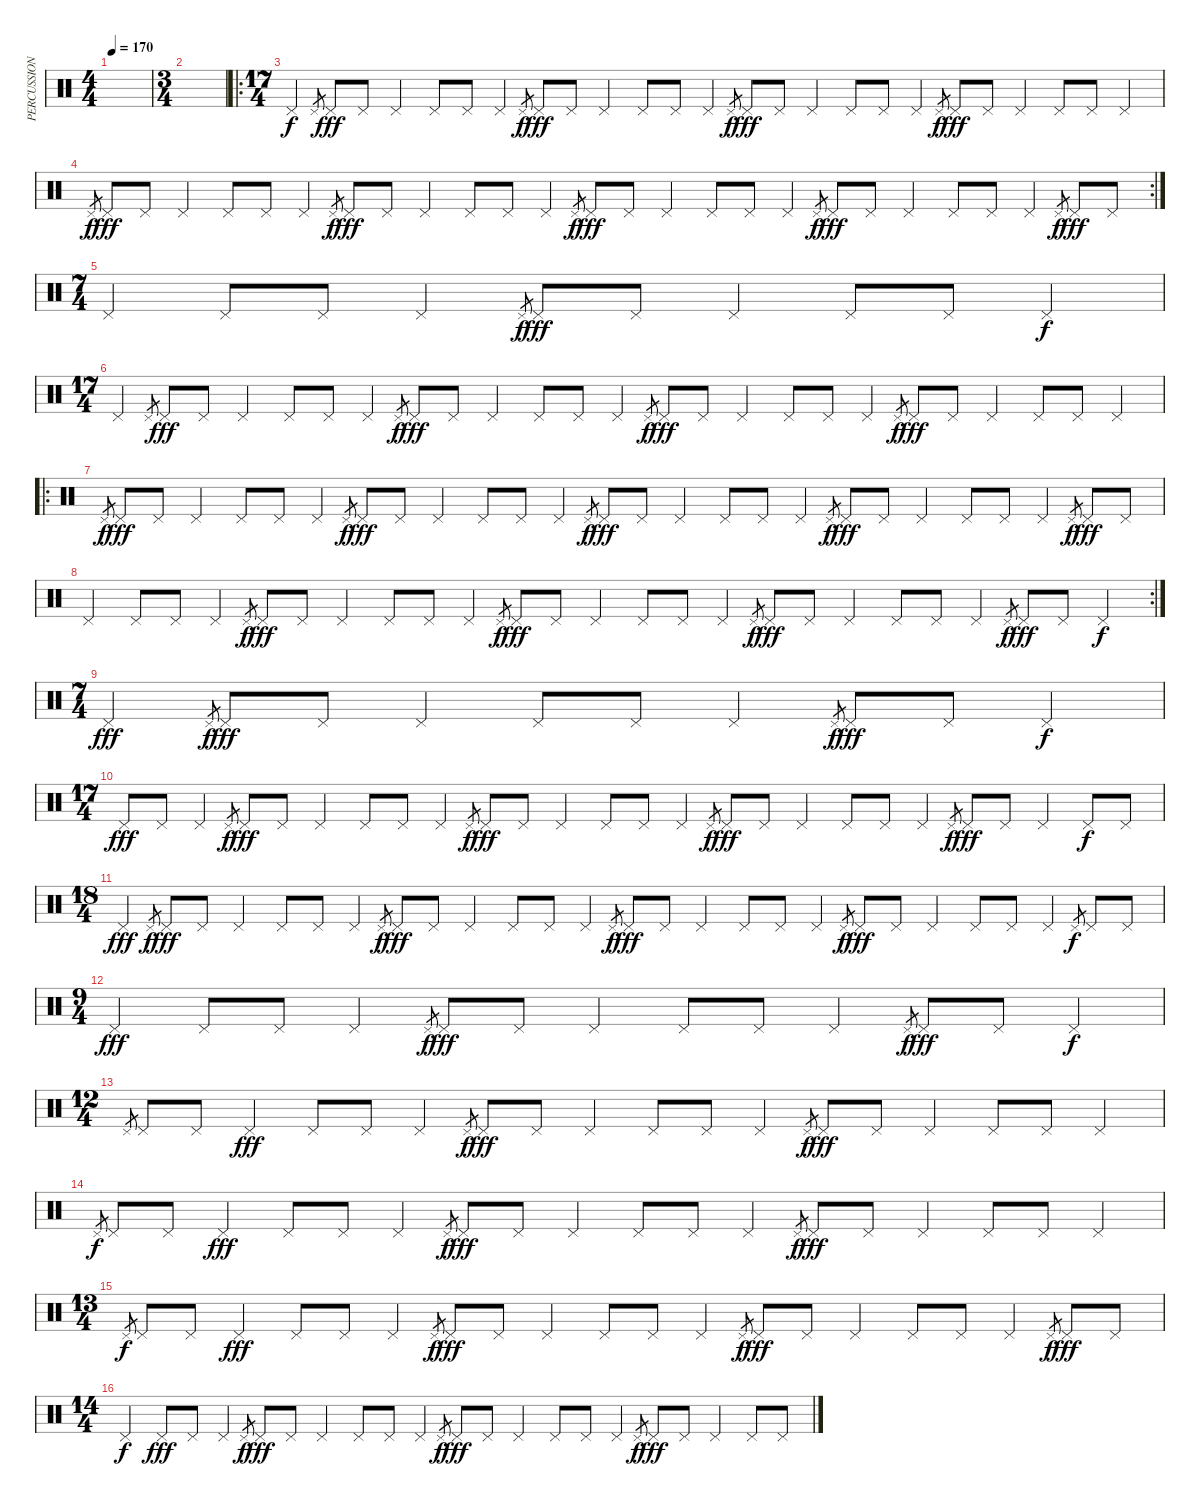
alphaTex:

\track ("PERCUSSION" "PERCUSSION") {instrument percussion}
\staff {score}
\articulation defaults
\ts (4 4)
\tempo 170
\clef neutral
\ks c
|
\ts (3 4)
|
\ro
\ts (17 4)
"Pedal Hi-Hat (hit)".4{volume 16} "Pedal Hi-Hat (hit)".8{gr dy f} "Pedal Hi-Hat (hit)".8{dy fff} "Pedal Hi-Hat (hit)".8 "Pedal Hi-Hat (hit)".4 "Pedal Hi-Hat (hit)".8 "Pedal Hi-Hat (hit)".8 "Pedal Hi-Hat (hit)".4 "Pedal Hi-Hat (hit)".8{gr dy f} "Pedal Hi-Hat (hit)".8{dy fff} "Pedal Hi-Hat (hit)".8 "Pedal Hi-Hat (hit)".4 "Pedal Hi-Hat (hit)".8 "Pedal Hi-Hat (hit)".8 "Pedal Hi-Hat (hit)".4 "Pedal Hi-Hat (hit)".8{gr dy f} "Pedal Hi-Hat (hit)".8{dy fff} "Pedal Hi-Hat (hit)".8 "Pedal Hi-Hat (hit)".4 "Pedal Hi-Hat (hit)".8 "Pedal Hi-Hat (hit)".8 "Pedal Hi-Hat (hit)".4 "Pedal Hi-Hat (hit)".8{gr dy f} "Pedal Hi-Hat (hit)".8{dy fff} "Pedal Hi-Hat (hit)".8 "Pedal Hi-Hat (hit)".4 "Pedal Hi-Hat (hit)".8 "Pedal Hi-Hat (hit)".8 "Pedal Hi-Hat (hit)".4 |
\rc 2 "Pedal Hi-Hat (hit)".8{gr dy f} "Pedal Hi-Hat (hit)".8{dy fff} "Pedal Hi-Hat (hit)".8 "Pedal Hi-Hat (hit)".4 "Pedal Hi-Hat (hit)".8 "Pedal Hi-Hat (hit)".8 "Pedal Hi-Hat (hit)".4 "Pedal Hi-Hat (hit)".8{gr dy f} "Pedal Hi-Hat (hit)".8{dy fff} "Pedal Hi-Hat (hit)".8 "Pedal Hi-Hat (hit)".4 "Pedal Hi-Hat (hit)".8 "Pedal Hi-Hat (hit)".8 "Pedal Hi-Hat (hit)".4 "Pedal Hi-Hat (hit)".8{gr dy f} "Pedal Hi-Hat (hit)".8{dy fff} "Pedal Hi-Hat (hit)".8 "Pedal Hi-Hat (hit)".4 "Pedal Hi-Hat (hit)".8 "Pedal Hi-Hat (hit)".8 "Pedal Hi-Hat (hit)".4 "Pedal Hi-Hat (hit)".8{gr dy f} "Pedal Hi-Hat (hit)".8{dy fff} "Pedal Hi-Hat (hit)".8 "Pedal Hi-Hat (hit)".4 "Pedal Hi-Hat (hit)".8 "Pedal Hi-Hat (hit)".8 "Pedal Hi-Hat (hit)".4 "Pedal Hi-Hat (hit)".8{gr dy f} "Pedal Hi-Hat (hit)".8{dy fff} "Pedal Hi-Hat (hit)".8
|
\ts (7 4)
"Pedal Hi-Hat (hit)".4 "Pedal Hi-Hat (hit)".8 "Pedal Hi-Hat (hit)".8 "Pedal Hi-Hat (hit)".4 "Pedal Hi-Hat (hit)".8{gr dy f} "Pedal Hi-Hat (hit)".8{dy fff} "Pedal Hi-Hat (hit)".8 "Pedal Hi-Hat (hit)".4 "Pedal Hi-Hat (hit)".8 "Pedal Hi-Hat (hit)".8 "Pedal Hi-Hat (hit)".4{dy f} |
\ts (17 4)
"Pedal Hi-Hat (hit)".4 "Pedal Hi-Hat (hit)".8{gr} "Pedal Hi-Hat (hit)".8{dy fff} "Pedal Hi-Hat (hit)".8 "Pedal Hi-Hat (hit)".4 "Pedal Hi-Hat (hit)".8 "Pedal Hi-Hat (hit)".8 "Pedal Hi-Hat (hit)".4 "Pedal Hi-Hat (hit)".8{gr dy f} "Pedal Hi-Hat (hit)".8{dy fff} "Pedal Hi-Hat (hit)".8 "Pedal Hi-Hat (hit)".4 "Pedal Hi-Hat (hit)".8 "Pedal Hi-Hat (hit)".8 "Pedal Hi-Hat (hit)".4 "Pedal Hi-Hat (hit)".8{gr dy f} "Pedal Hi-Hat (hit)".8{dy fff} "Pedal Hi-Hat (hit)".8 "Pedal Hi-Hat (hit)".4 "Pedal Hi-Hat (hit)".8 "Pedal Hi-Hat (hit)".8 "Pedal Hi-Hat (hit)".4 "Pedal Hi-Hat (hit)".8{gr dy f} "Pedal Hi-Hat (hit)".8{dy fff} "Pedal Hi-Hat (hit)".8 "Pedal Hi-Hat (hit)".4 "Pedal Hi-Hat (hit)".8 "Pedal Hi-Hat (hit)".8 "Pedal Hi-Hat (hit)".4 |
\ro "Pedal Hi-Hat (hit)".8{gr dy f} "Pedal Hi-Hat (hit)".8{dy fff} "Pedal Hi-Hat (hit)".8 "Pedal Hi-Hat (hit)".4 "Pedal Hi-Hat (hit)".8 "Pedal Hi-Hat (hit)".8 "Pedal Hi-Hat (hit)".4 "Pedal Hi-Hat (hit)".8{gr dy f} "Pedal Hi-Hat (hit)".8{dy fff} "Pedal Hi-Hat (hit)".8 "Pedal Hi-Hat (hit)".4 "Pedal Hi-Hat (hit)".8 "Pedal Hi-Hat (hit)".8 "Pedal Hi-Hat (hit)".4 "Pedal Hi-Hat (hit)".8{gr dy f} "Pedal Hi-Hat (hit)".8{dy fff} "Pedal Hi-Hat (hit)".8 "Pedal Hi-Hat (hit)".4 "Pedal Hi-Hat (hit)".8 "Pedal Hi-Hat (hit)".8 "Pedal Hi-Hat (hit)".4 "Pedal Hi-Hat (hit)".8{gr dy f} "Pedal Hi-Hat (hit)".8{dy fff} "Pedal Hi-Hat (hit)".8 "Pedal Hi-Hat (hit)".4 "Pedal Hi-Hat (hit)".8 "Pedal Hi-Hat (hit)".8 "Pedal Hi-Hat (hit)".4 "Pedal Hi-Hat (hit)".8{gr dy f} "Pedal Hi-Hat (hit)".8{dy fff} "Pedal Hi-Hat (hit)".8
|
\rc 2 "Pedal Hi-Hat (hit)".4 "Pedal Hi-Hat (hit)".8 "Pedal Hi-Hat (hit)".8 "Pedal Hi-Hat (hit)".4 "Pedal Hi-Hat (hit)".8{gr dy f} "Pedal Hi-Hat (hit)".8{dy fff} "Pedal Hi-Hat (hit)".8 "Pedal Hi-Hat (hit)".4 "Pedal Hi-Hat (hit)".8 "Pedal Hi-Hat (hit)".8 "Pedal Hi-Hat (hit)".4 "Pedal Hi-Hat (hit)".8{gr dy f} "Pedal Hi-Hat (hit)".8{dy fff} "Pedal Hi-Hat (hit)".8 "Pedal Hi-Hat (hit)".4 "Pedal Hi-Hat (hit)".8 "Pedal Hi-Hat (hit)".8 "Pedal Hi-Hat (hit)".4 "Pedal Hi-Hat (hit)".8{gr dy f} "Pedal Hi-Hat (hit)".8{dy fff} "Pedal Hi-Hat (hit)".8 "Pedal Hi-Hat (hit)".4 "Pedal Hi-Hat (hit)".8 "Pedal Hi-Hat (hit)".8 "Pedal Hi-Hat (hit)".4 "Pedal Hi-Hat (hit)".8{gr dy f} "Pedal Hi-Hat (hit)".8{dy fff} "Pedal Hi-Hat (hit)".8 "Pedal Hi-Hat (hit)".4{dy f}
|
\ts (7 4)
"Pedal Hi-Hat (hit)".4{dy fff} "Pedal Hi-Hat (hit)".8{gr dy f} "Pedal Hi-Hat (hit)".8{dy fff} "Pedal Hi-Hat (hit)".8 "Pedal Hi-Hat (hit)".4 "Pedal Hi-Hat (hit)".8 "Pedal Hi-Hat (hit)".8 "Pedal Hi-Hat (hit)".4 "Pedal Hi-Hat (hit)".8{gr dy f} "Pedal Hi-Hat (hit)".8{dy fff} "Pedal Hi-Hat (hit)".8 "Pedal Hi-Hat (hit)".4{dy f} |
\ts (17 4)
"Pedal Hi-Hat (hit)".8{dy fff} "Pedal Hi-Hat (hit)".8 "Pedal Hi-Hat (hit)".4 "Pedal Hi-Hat (hit)".8{gr dy f} "Pedal Hi-Hat (hit)".8{dy fff} "Pedal Hi-Hat (hit)".8 "Pedal Hi-Hat (hit)".4 "Pedal Hi-Hat (hit)".8 "Pedal Hi-Hat (hit)".8 "Pedal Hi-Hat (hit)".4 "Pedal Hi-Hat (hit)".8{gr dy f} "Pedal Hi-Hat (hit)".8{dy fff} "Pedal Hi-Hat (hit)".8 "Pedal Hi-Hat (hit)".4 "Pedal Hi-Hat (hit)".8 "Pedal Hi-Hat (hit)".8 "Pedal Hi-Hat (hit)".4 "Pedal Hi-Hat (hit)".8{gr dy f} "Pedal Hi-Hat (hit)".8{dy fff} "Pedal Hi-Hat (hit)".8 "Pedal Hi-Hat (hit)".4 "Pedal Hi-Hat (hit)".8 "Pedal Hi-Hat (hit)".8 "Pedal Hi-Hat (hit)".4 "Pedal Hi-Hat (hit)".8{gr dy f} "Pedal Hi-Hat (hit)".8{dy fff} "Pedal Hi-Hat (hit)".8 "Pedal Hi-Hat (hit)".4 "Pedal Hi-Hat (hit)".8{dy f} "Pedal Hi-Hat (hit)".8 |
\ts (18 4)
"Pedal Hi-Hat (hit)".4{dy fff} "Pedal Hi-Hat (hit)".8{gr dy f} "Pedal Hi-Hat (hit)".8{dy fff} "Pedal Hi-Hat (hit)".8 "Pedal Hi-Hat (hit)".4 "Pedal Hi-Hat (hit)".8 "Pedal Hi-Hat (hit)".8 "Pedal Hi-Hat (hit)".4 "Pedal Hi-Hat (hit)".8{gr dy f} "Pedal Hi-Hat (hit)".8{dy fff} "Pedal Hi-Hat (hit)".8 "Pedal Hi-Hat (hit)".4 "Pedal Hi-Hat (hit)".8 "Pedal Hi-Hat (hit)".8 "Pedal Hi-Hat (hit)".4 "Pedal Hi-Hat (hit)".8{gr dy f} "Pedal Hi-Hat (hit)".8{dy fff} "Pedal Hi-Hat (hit)".8 "Pedal Hi-Hat (hit)".4 "Pedal Hi-Hat (hit)".8 "Pedal Hi-Hat (hit)".8 "Pedal Hi-Hat (hit)".4 "Pedal Hi-Hat (hit)".8{gr dy f} "Pedal Hi-Hat (hit)".8{dy fff} "Pedal Hi-Hat (hit)".8 "Pedal Hi-Hat (hit)".4 "Pedal Hi-Hat (hit)".8 "Pedal Hi-Hat (hit)".8 "Pedal Hi-Hat (hit)".4 "Pedal Hi-Hat (hit)".8{gr dy f} "Pedal Hi-Hat (hit)".8 "Pedal Hi-Hat (hit)".8 |
\ts (9 4)
"Pedal Hi-Hat (hit)".4{dy fff} "Pedal Hi-Hat (hit)".8 "Pedal Hi-Hat (hit)".8 "Pedal Hi-Hat (hit)".4 "Pedal Hi-Hat (hit)".8{gr dy f} "Pedal Hi-Hat (hit)".8{dy fff} "Pedal Hi-Hat (hit)".8 "Pedal Hi-Hat (hit)".4 "Pedal Hi-Hat (hit)".8 "Pedal Hi-Hat (hit)".8 "Pedal Hi-Hat (hit)".4 "Pedal Hi-Hat (hit)".8{gr dy f} "Pedal Hi-Hat (hit)".8{dy fff} "Pedal Hi-Hat (hit)".8 "Pedal Hi-Hat (hit)".4{dy f} |
\ts (12 4)
"Pedal Hi-Hat (hit)".8{gr} "Pedal Hi-Hat (hit)".8 "Pedal Hi-Hat (hit)".8 "Pedal Hi-Hat (hit)".4{dy fff} "Pedal Hi-Hat (hit)".8 "Pedal Hi-Hat (hit)".8 "Pedal Hi-Hat (hit)".4 "Pedal Hi-Hat (hit)".8{gr dy f} "Pedal Hi-Hat (hit)".8{dy fff} "Pedal Hi-Hat (hit)".8 "Pedal Hi-Hat (hit)".4 "Pedal Hi-Hat (hit)".8 "Pedal Hi-Hat (hit)".8 "Pedal Hi-Hat (hit)".4 "Pedal Hi-Hat (hit)".8{gr dy f} "Pedal Hi-Hat (hit)".8{dy fff} "Pedal Hi-Hat (hit)".8 "Pedal Hi-Hat (hit)".4 "Pedal Hi-Hat (hit)".8 "Pedal Hi-Hat (hit)".8 "Pedal Hi-Hat (hit)".4 |
"Pedal Hi-Hat (hit)".8{gr dy f} "Pedal Hi-Hat (hit)".8 "Pedal Hi-Hat (hit)".8 "Pedal Hi-Hat (hit)".4{dy fff} "Pedal Hi-Hat (hit)".8 "Pedal Hi-Hat (hit)".8 "Pedal Hi-Hat (hit)".4 "Pedal Hi-Hat (hit)".8{gr dy f} "Pedal Hi-Hat (hit)".8{dy fff} "Pedal Hi-Hat (hit)".8 "Pedal Hi-Hat (hit)".4 "Pedal Hi-Hat (hit)".8 "Pedal Hi-Hat (hit)".8 "Pedal Hi-Hat (hit)".4 "Pedal Hi-Hat (hit)".8{gr dy f} "Pedal Hi-Hat (hit)".8{dy fff} "Pedal Hi-Hat (hit)".8 "Pedal Hi-Hat (hit)".4 "Pedal Hi-Hat (hit)".8 "Pedal Hi-Hat (hit)".8 "Pedal Hi-Hat (hit)".4 |
\ts (13 4)
"Pedal Hi-Hat (hit)".8{gr dy f} "Pedal Hi-Hat (hit)".8 "Pedal Hi-Hat (hit)".8 "Pedal Hi-Hat (hit)".4{dy fff} "Pedal Hi-Hat (hit)".8 "Pedal Hi-Hat (hit)".8 "Pedal Hi-Hat (hit)".4 "Pedal Hi-Hat (hit)".8{gr dy f} "Pedal Hi-Hat (hit)".8{dy fff} "Pedal Hi-Hat (hit)".8 "Pedal Hi-Hat (hit)".4 "Pedal Hi-Hat (hit)".8 "Pedal Hi-Hat (hit)".8 "Pedal Hi-Hat (hit)".4 "Pedal Hi-Hat (hit)".8{gr dy f} "Pedal Hi-Hat (hit)".8{dy fff} "Pedal Hi-Hat (hit)".8 "Pedal Hi-Hat (hit)".4 "Pedal Hi-Hat (hit)".8 "Pedal Hi-Hat (hit)".8 "Pedal Hi-Hat (hit)".4 "Pedal Hi-Hat (hit)".8{gr dy f} "Pedal Hi-Hat (hit)".8{dy fff} "Pedal Hi-Hat (hit)".8 |
\ts (14 4)
"Pedal Hi-Hat (hit)".4{dy f} "Pedal Hi-Hat (hit)".8{dy fff} "Pedal Hi-Hat (hit)".8 "Pedal Hi-Hat (hit)".4 "Pedal Hi-Hat (hit)".8{gr dy f} "Pedal Hi-Hat (hit)".8{dy fff} "Pedal Hi-Hat (hit)".8 "Pedal Hi-Hat (hit)".4 "Pedal Hi-Hat (hit)".8 "Pedal Hi-Hat (hit)".8 "Pedal Hi-Hat (hit)".4 "Pedal Hi-Hat (hit)".8{gr dy f} "Pedal Hi-Hat (hit)".8{dy fff} "Pedal Hi-Hat (hit)".8 "Pedal Hi-Hat (hit)".4 "Pedal Hi-Hat (hit)".8 "Pedal Hi-Hat (hit)".8 "Pedal Hi-Hat (hit)".4 "Pedal Hi-Hat (hit)".8{gr dy f} "Pedal Hi-Hat (hit)".8{dy fff} "Pedal Hi-Hat (hit)".8 "Pedal Hi-Hat (hit)".4 "Pedal Hi-Hat (hit)".8 "Pedal Hi-Hat (hit)".8
